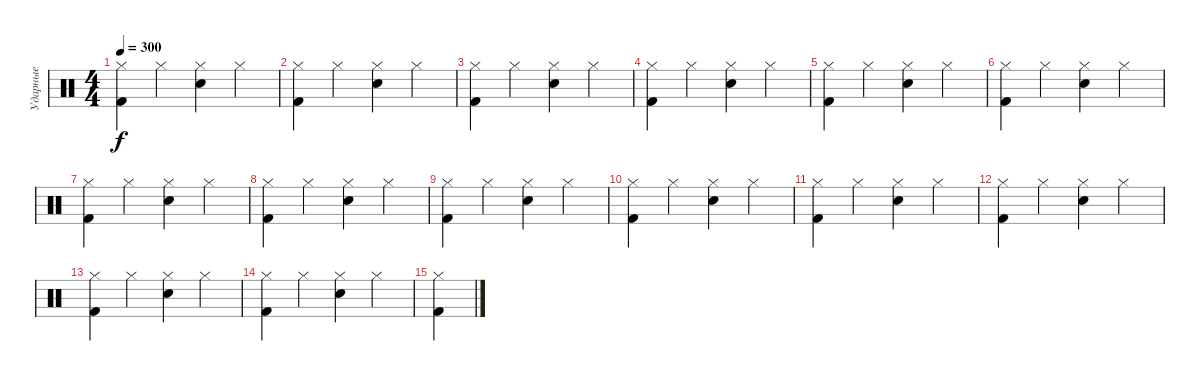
\track ("Ударные" "Ударные") {instrument percussion}
\staff {score}
\articulation defaults
\ts (4 4)
\tempo 300
\clef neutral
\ks c
("Hi-Hat (closed)" "Kick (hit) 2").4{dy f} "Hi-Hat (closed)".4 ("Hi-Hat (closed)" "Snare (hit) 2").4 "Hi-Hat (closed)".4 |
("Hi-Hat (closed)" "Kick (hit) 2").4 "Hi-Hat (closed)".4 ("Hi-Hat (closed)" "Snare (hit) 2").4 "Hi-Hat (closed)".4 |
("Hi-Hat (closed)" "Kick (hit) 2").4 "Hi-Hat (closed)".4 ("Hi-Hat (closed)" "Snare (hit) 2").4 "Hi-Hat (closed)".4 |
("Hi-Hat (closed)" "Kick (hit) 2").4 "Hi-Hat (closed)".4 ("Hi-Hat (closed)" "Snare (hit) 2").4 "Hi-Hat (closed)".4 |
("Hi-Hat (closed)" "Kick (hit) 2").4 "Hi-Hat (closed)".4 ("Hi-Hat (closed)" "Snare (hit) 2").4 "Hi-Hat (closed)".4 |
("Hi-Hat (closed)" "Kick (hit) 2").4 "Hi-Hat (closed)".4 ("Hi-Hat (closed)" "Snare (hit) 2").4 "Hi-Hat (closed)".4 |
("Hi-Hat (closed)" "Kick (hit) 2").4 "Hi-Hat (closed)".4 ("Hi-Hat (closed)" "Snare (hit) 2").4 "Hi-Hat (closed)".4 |
("Hi-Hat (closed)" "Kick (hit) 2").4 "Hi-Hat (closed)".4 ("Hi-Hat (closed)" "Snare (hit) 2").4 "Hi-Hat (closed)".4 |
("Hi-Hat (closed)" "Kick (hit) 2").4 "Hi-Hat (closed)".4 ("Hi-Hat (closed)" "Snare (hit) 2").4 "Hi-Hat (closed)".4 |
("Hi-Hat (closed)" "Kick (hit) 2").4 "Hi-Hat (closed)".4 ("Hi-Hat (closed)" "Snare (hit) 2").4 "Hi-Hat (closed)".4 |
("Hi-Hat (closed)" "Kick (hit) 2").4 "Hi-Hat (closed)".4 ("Hi-Hat (closed)" "Snare (hit) 2").4 "Hi-Hat (closed)".4 |
("Hi-Hat (closed)" "Kick (hit) 2").4 "Hi-Hat (closed)".4 ("Hi-Hat (closed)" "Snare (hit) 2").4 "Hi-Hat (closed)".4 |
("Hi-Hat (closed)" "Kick (hit) 2").4 "Hi-Hat (closed)".4 ("Hi-Hat (closed)" "Snare (hit) 2").4 "Hi-Hat (closed)".4 |
("Hi-Hat (closed)" "Kick (hit) 2").4 "Hi-Hat (closed)".4 ("Hi-Hat (closed)" "Snare (hit) 2").4 "Hi-Hat (closed)".4 |
("Hi-Hat (closed)" "Kick (hit) 2").4
